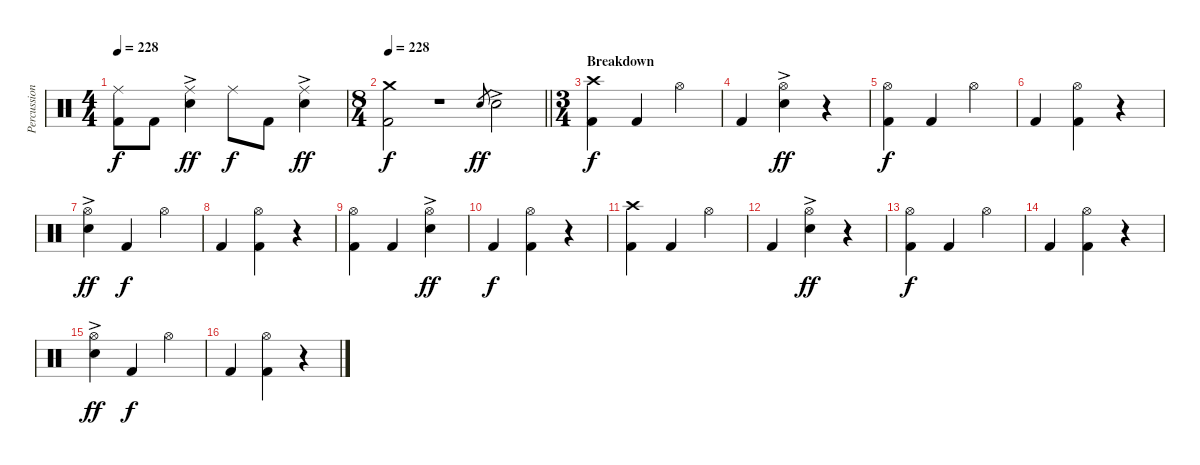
\track ("Percussion" "Percussion") {instrument percussion}
\staff {score}
\articulation defaults
\ts (4 4)
\tempo 228
\clef neutral
\ks c
("Ride (middle)" "Kick (hit) 2").8{dy f} "Kick (hit) 2".8 ("Ride (middle)" "Electric Snare (hit)"{ac}).4{dy ff} "Ride (middle)".8{dy f} "Kick (hit) 2".8 ("Ride (middle)" "Electric Snare (hit)"{ac}).4{dy ff} |
\ts (8 4)
\tempo 228
\barLineRight lightlight
("Crash medium (hit)" "Kick (hit) 2").2{dy f} r.1 "Electric Snare (hit)".8{gr dy ff} "Electric Snare (hit)"{ac}.2 |
\ts (3 4)
\section ("" "Breakdown")
("Crash high (hit)" "Kick (hit) 2").4{dy f} "Kick (hit) 2".4 "Hi-Hat (open)".4 |
"Kick (hit) 2".4 ("Hi-Hat (open)" "Electric Snare (hit)"{ac}).4{dy ff} r.4 |
("Hi-Hat (open)" "Kick (hit) 2").4{dy f} "Kick (hit) 2".4 "Hi-Hat (open)".4 |
"Kick (hit) 2".4 ("Hi-Hat (open)" "Kick (hit) 2").4 r.4 |
("Hi-Hat (open)" "Electric Snare (hit)"{ac}).4{dy ff} "Kick (hit) 2".4{dy f} "Hi-Hat (open)".4 |
"Kick (hit) 2".4 ("Hi-Hat (open)" "Kick (hit) 2").4 r.4 |
("Hi-Hat (open)" "Kick (hit) 2").4 "Kick (hit) 2".4 ("Hi-Hat (open)" "Electric Snare (hit)"{ac}).4{dy ff} |
"Kick (hit) 2".4{dy f} ("Hi-Hat (open)" "Kick (hit) 2").4 r.4 |
("Crash high (hit)" "Kick (hit) 2").4 "Kick (hit) 2".4 "Hi-Hat (open)".4 |
"Kick (hit) 2".4 ("Hi-Hat (open)" "Electric Snare (hit)"{ac}).4{dy ff} r.4 |
("Hi-Hat (open)" "Kick (hit) 2").4{dy f} "Kick (hit) 2".4 "Hi-Hat (open)".4 |
"Kick (hit) 2".4 ("Hi-Hat (open)" "Kick (hit) 2").4 r.4 |
("Hi-Hat (open)" "Electric Snare (hit)"{ac}).4{dy ff} "Kick (hit) 2".4{dy f} "Hi-Hat (open)".4 |
"Kick (hit) 2".4 ("Hi-Hat (open)" "Kick (hit) 2").4 r.4
